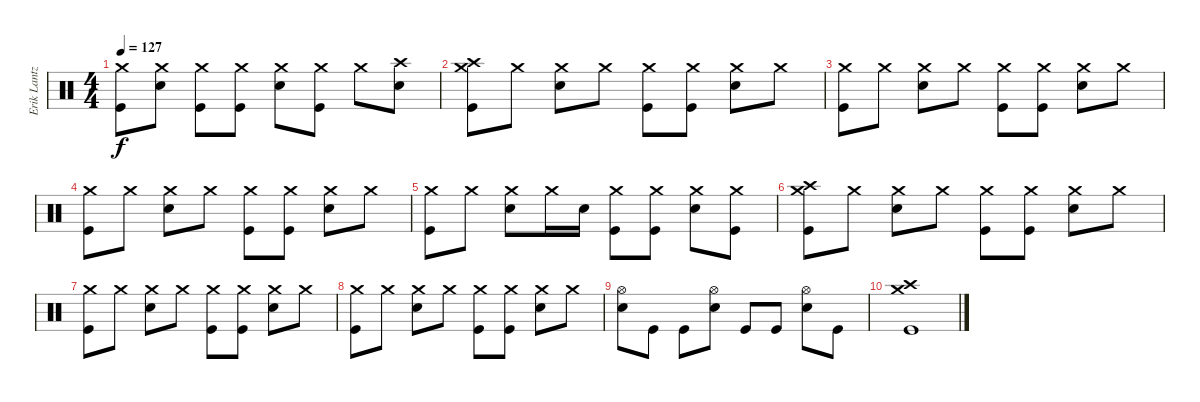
\track ("Erik Lantz" "Erik Lantz") {instrument percussion}
\staff {score}
\articulation defaults
\ts (4 4)
\tempo 127
\clef neutral
\ks c
("Crash medium (hit)" "Kick (hit)").8{dy f} ("Crash medium (hit)" "Electric Snare (hit)").8 ("Crash medium (hit)" "Kick (hit)").8 ("Crash medium (hit)" "Kick (hit)").8 ("Crash medium (hit)" "Electric Snare (hit)").8 ("Crash medium (hit)" "Kick (hit)").8 "Crash medium (hit)".8 ("Crash high (hit)" "Electric Snare (hit)").8 |
("Crash high (hit)" "Crash medium (hit)" "Kick (hit)").8 "Crash medium (hit)".8 ("Crash medium (hit)" "Electric Snare (hit)").8 "Crash medium (hit)".8 ("Crash medium (hit)" "Kick (hit)").8 ("Crash medium (hit)" "Kick (hit)").8 ("Crash medium (hit)" "Electric Snare (hit)").8 "Crash medium (hit)".8 |
("Crash medium (hit)" "Kick (hit)").8 "Crash medium (hit)".8 ("Crash medium (hit)" "Electric Snare (hit)").8 "Crash medium (hit)".8 ("Crash medium (hit)" "Kick (hit)").8 ("Crash medium (hit)" "Kick (hit)").8 ("Crash medium (hit)" "Electric Snare (hit)").8 "Crash medium (hit)".8 |
("Crash medium (hit)" "Kick (hit)").8 "Crash medium (hit)".8 ("Crash medium (hit)" "Electric Snare (hit)").8 "Crash medium (hit)".8 ("Crash medium (hit)" "Kick (hit)").8 ("Crash medium (hit)" "Kick (hit)").8 ("Crash medium (hit)" "Electric Snare (hit)").8 "Crash medium (hit)".8 |
("Crash medium (hit)" "Kick (hit)").8 "Crash medium (hit)".8 ("Crash medium (hit)" "Electric Snare (hit)").8 "Crash medium (hit)".16 "Electric Snare (hit)".16 ("Crash medium (hit)" "Kick (hit)").8 ("Crash medium (hit)" "Kick (hit)").8 ("Crash medium (hit)" "Electric Snare (hit)").8 ("Crash medium (hit)" "Kick (hit)").8 |
("Crash high (hit)" "Crash medium (hit)" "Kick (hit)").8 "Crash medium (hit)".8 ("Crash medium (hit)" "Electric Snare (hit)").8 "Crash medium (hit)".8 ("Crash medium (hit)" "Kick (hit)").8 ("Crash medium (hit)" "Kick (hit)").8 ("Crash medium (hit)" "Electric Snare (hit)").8 "Crash medium (hit)".8 |
("Crash medium (hit)" "Kick (hit)").8 "Crash medium (hit)".8 ("Crash medium (hit)" "Electric Snare (hit)").8 "Crash medium (hit)".8 ("Crash medium (hit)" "Kick (hit)").8 ("Crash medium (hit)" "Kick (hit)").8 ("Crash medium (hit)" "Electric Snare (hit)").8 "Crash medium (hit)".8 |
("Crash medium (hit)" "Kick (hit)").8 "Crash medium (hit)".8 ("Crash medium (hit)" "Electric Snare (hit)").8 "Crash medium (hit)".8 ("Crash medium (hit)" "Kick (hit)").8 ("Crash medium (hit)" "Kick (hit)").8 ("Crash medium (hit)" "Electric Snare (hit)").8 "Crash medium (hit)".8 |
("Hi-Hat (open)" "Electric Snare (hit)").8 "Kick (hit)".8 "Kick (hit)".8 ("Hi-Hat (open)" "Electric Snare (hit)").8 "Kick (hit)".8 "Kick (hit)".8 ("Hi-Hat (open)" "Electric Snare (hit)").8 "Kick (hit)".8 |
("Crash high (hit)" "Crash medium (hit)" "Kick (hit)").1
